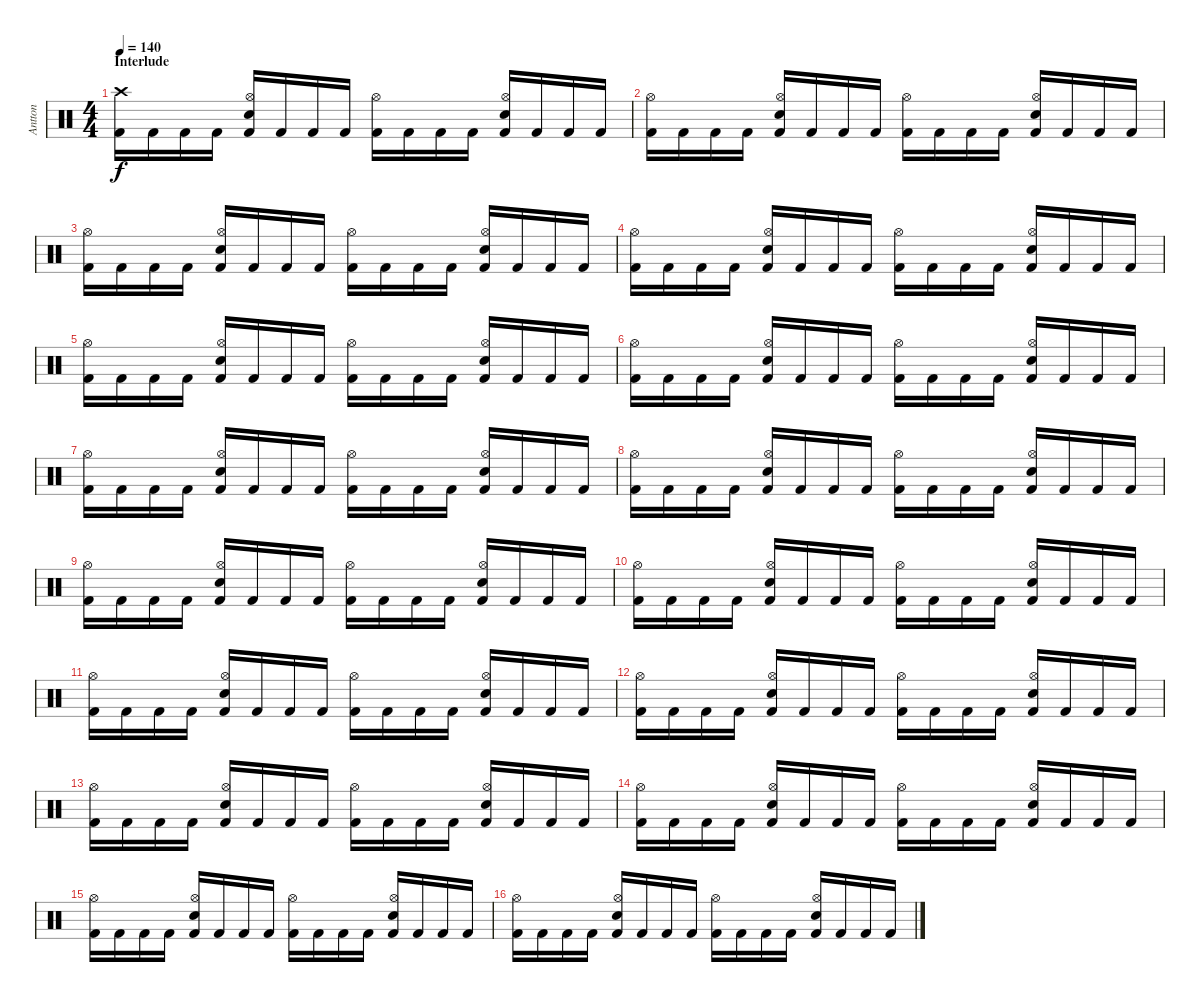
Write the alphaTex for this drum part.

\track ("Antton" "Antton") {instrument percussion}
\staff {score}
\articulation defaults
\ts (4 4)
\section ("" "Interlude")
\tempo 140
\clef neutral
\ks c
("Crash high (hit)" "Kick (hit) 2").16{dy f} "Kick (hit) 2".16 "Kick (hit) 2".16 "Kick (hit) 2".16 ("Hi-Hat (open)" "Snare (hit) 2" "Kick (hit) 2").16 "Kick (hit) 2".16 "Kick (hit) 2".16 "Kick (hit) 2".16 ("Hi-Hat (open)" "Kick (hit) 2").16 "Kick (hit) 2".16 "Kick (hit) 2".16 "Kick (hit) 2".16 ("Hi-Hat (open)" "Snare (hit) 2" "Kick (hit) 2").16 "Kick (hit) 2".16 "Kick (hit) 2".16 "Kick (hit) 2".16 |
("Hi-Hat (open)" "Kick (hit) 2").16 "Kick (hit) 2".16 "Kick (hit) 2".16 "Kick (hit) 2".16 ("Hi-Hat (open)" "Snare (hit) 2" "Kick (hit) 2").16 "Kick (hit) 2".16 "Kick (hit) 2".16 "Kick (hit) 2".16 ("Hi-Hat (open)" "Kick (hit) 2").16 "Kick (hit) 2".16 "Kick (hit) 2".16 "Kick (hit) 2".16 ("Hi-Hat (open)" "Snare (hit) 2" "Kick (hit) 2").16 "Kick (hit) 2".16 "Kick (hit) 2".16 "Kick (hit) 2".16 |
("Hi-Hat (open)" "Kick (hit) 2").16 "Kick (hit) 2".16 "Kick (hit) 2".16 "Kick (hit) 2".16 ("Hi-Hat (open)" "Snare (hit) 2" "Kick (hit) 2").16 "Kick (hit) 2".16 "Kick (hit) 2".16 "Kick (hit) 2".16 ("Hi-Hat (open)" "Kick (hit) 2").16 "Kick (hit) 2".16 "Kick (hit) 2".16 "Kick (hit) 2".16 ("Hi-Hat (open)" "Snare (hit) 2" "Kick (hit) 2").16 "Kick (hit) 2".16 "Kick (hit) 2".16 "Kick (hit) 2".16 |
("Hi-Hat (open)" "Kick (hit) 2").16 "Kick (hit) 2".16 "Kick (hit) 2".16 "Kick (hit) 2".16 ("Hi-Hat (open)" "Snare (hit) 2" "Kick (hit) 2").16 "Kick (hit) 2".16 "Kick (hit) 2".16 "Kick (hit) 2".16 ("Hi-Hat (open)" "Kick (hit) 2").16 "Kick (hit) 2".16 "Kick (hit) 2".16 "Kick (hit) 2".16 ("Hi-Hat (open)" "Snare (hit) 2" "Kick (hit) 2").16 "Kick (hit) 2".16 "Kick (hit) 2".16 "Kick (hit) 2".16 |
("Hi-Hat (open)" "Kick (hit) 2").16 "Kick (hit) 2".16 "Kick (hit) 2".16 "Kick (hit) 2".16 ("Hi-Hat (open)" "Snare (hit) 2" "Kick (hit) 2").16 "Kick (hit) 2".16 "Kick (hit) 2".16 "Kick (hit) 2".16 ("Hi-Hat (open)" "Kick (hit) 2").16 "Kick (hit) 2".16 "Kick (hit) 2".16 "Kick (hit) 2".16 ("Hi-Hat (open)" "Snare (hit) 2" "Kick (hit) 2").16 "Kick (hit) 2".16 "Kick (hit) 2".16 "Kick (hit) 2".16 |
("Hi-Hat (open)" "Kick (hit) 2").16 "Kick (hit) 2".16 "Kick (hit) 2".16 "Kick (hit) 2".16 ("Hi-Hat (open)" "Snare (hit) 2" "Kick (hit) 2").16 "Kick (hit) 2".16 "Kick (hit) 2".16 "Kick (hit) 2".16 ("Hi-Hat (open)" "Kick (hit) 2").16 "Kick (hit) 2".16 "Kick (hit) 2".16 "Kick (hit) 2".16 ("Hi-Hat (open)" "Snare (hit) 2" "Kick (hit) 2").16 "Kick (hit) 2".16 "Kick (hit) 2".16 "Kick (hit) 2".16 |
("Hi-Hat (open)" "Kick (hit) 2").16 "Kick (hit) 2".16 "Kick (hit) 2".16 "Kick (hit) 2".16 ("Hi-Hat (open)" "Snare (hit) 2" "Kick (hit) 2").16 "Kick (hit) 2".16 "Kick (hit) 2".16 "Kick (hit) 2".16 ("Hi-Hat (open)" "Kick (hit) 2").16 "Kick (hit) 2".16 "Kick (hit) 2".16 "Kick (hit) 2".16 ("Hi-Hat (open)" "Snare (hit) 2" "Kick (hit) 2").16 "Kick (hit) 2".16 "Kick (hit) 2".16 "Kick (hit) 2".16 |
("Hi-Hat (open)" "Kick (hit) 2").16 "Kick (hit) 2".16 "Kick (hit) 2".16 "Kick (hit) 2".16 ("Hi-Hat (open)" "Snare (hit) 2" "Kick (hit) 2").16 "Kick (hit) 2".16 "Kick (hit) 2".16 "Kick (hit) 2".16 ("Hi-Hat (open)" "Kick (hit) 2").16 "Kick (hit) 2".16 "Kick (hit) 2".16 "Kick (hit) 2".16 ("Hi-Hat (open)" "Snare (hit) 2" "Kick (hit) 2").16 "Kick (hit) 2".16 "Kick (hit) 2".16 "Kick (hit) 2".16 |
("Hi-Hat (open)" "Kick (hit) 2").16 "Kick (hit) 2".16 "Kick (hit) 2".16 "Kick (hit) 2".16 ("Hi-Hat (open)" "Snare (hit) 2" "Kick (hit) 2").16 "Kick (hit) 2".16 "Kick (hit) 2".16 "Kick (hit) 2".16 ("Hi-Hat (open)" "Kick (hit) 2").16 "Kick (hit) 2".16 "Kick (hit) 2".16 "Kick (hit) 2".16 ("Hi-Hat (open)" "Snare (hit) 2" "Kick (hit) 2").16 "Kick (hit) 2".16 "Kick (hit) 2".16 "Kick (hit) 2".16 |
("Hi-Hat (open)" "Kick (hit) 2").16 "Kick (hit) 2".16 "Kick (hit) 2".16 "Kick (hit) 2".16 ("Hi-Hat (open)" "Snare (hit) 2" "Kick (hit) 2").16 "Kick (hit) 2".16 "Kick (hit) 2".16 "Kick (hit) 2".16 ("Hi-Hat (open)" "Kick (hit) 2").16 "Kick (hit) 2".16 "Kick (hit) 2".16 "Kick (hit) 2".16 ("Hi-Hat (open)" "Snare (hit) 2" "Kick (hit) 2").16 "Kick (hit) 2".16 "Kick (hit) 2".16 "Kick (hit) 2".16 |
("Hi-Hat (open)" "Kick (hit) 2").16 "Kick (hit) 2".16 "Kick (hit) 2".16 "Kick (hit) 2".16 ("Hi-Hat (open)" "Snare (hit) 2" "Kick (hit) 2").16 "Kick (hit) 2".16 "Kick (hit) 2".16 "Kick (hit) 2".16 ("Hi-Hat (open)" "Kick (hit) 2").16 "Kick (hit) 2".16 "Kick (hit) 2".16 "Kick (hit) 2".16 ("Hi-Hat (open)" "Snare (hit) 2" "Kick (hit) 2").16 "Kick (hit) 2".16 "Kick (hit) 2".16 "Kick (hit) 2".16 |
("Hi-Hat (open)" "Kick (hit) 2").16 "Kick (hit) 2".16 "Kick (hit) 2".16 "Kick (hit) 2".16 ("Hi-Hat (open)" "Snare (hit) 2" "Kick (hit) 2").16 "Kick (hit) 2".16 "Kick (hit) 2".16 "Kick (hit) 2".16 ("Hi-Hat (open)" "Kick (hit) 2").16 "Kick (hit) 2".16 "Kick (hit) 2".16 "Kick (hit) 2".16 ("Hi-Hat (open)" "Snare (hit) 2" "Kick (hit) 2").16 "Kick (hit) 2".16 "Kick (hit) 2".16 "Kick (hit) 2".16 |
("Hi-Hat (open)" "Kick (hit) 2").16 "Kick (hit) 2".16 "Kick (hit) 2".16 "Kick (hit) 2".16 ("Hi-Hat (open)" "Snare (hit) 2" "Kick (hit) 2").16 "Kick (hit) 2".16 "Kick (hit) 2".16 "Kick (hit) 2".16 ("Hi-Hat (open)" "Kick (hit) 2").16 "Kick (hit) 2".16 "Kick (hit) 2".16 "Kick (hit) 2".16 ("Hi-Hat (open)" "Snare (hit) 2" "Kick (hit) 2").16 "Kick (hit) 2".16 "Kick (hit) 2".16 "Kick (hit) 2".16 |
("Hi-Hat (open)" "Kick (hit) 2").16 "Kick (hit) 2".16 "Kick (hit) 2".16 "Kick (hit) 2".16 ("Hi-Hat (open)" "Snare (hit) 2" "Kick (hit) 2").16 "Kick (hit) 2".16 "Kick (hit) 2".16 "Kick (hit) 2".16 ("Hi-Hat (open)" "Kick (hit) 2").16 "Kick (hit) 2".16 "Kick (hit) 2".16 "Kick (hit) 2".16 ("Hi-Hat (open)" "Snare (hit) 2" "Kick (hit) 2").16 "Kick (hit) 2".16 "Kick (hit) 2".16 "Kick (hit) 2".16 |
("Hi-Hat (open)" "Kick (hit) 2").16 "Kick (hit) 2".16 "Kick (hit) 2".16 "Kick (hit) 2".16 ("Hi-Hat (open)" "Snare (hit) 2" "Kick (hit) 2").16 "Kick (hit) 2".16 "Kick (hit) 2".16 "Kick (hit) 2".16 ("Hi-Hat (open)" "Kick (hit) 2").16 "Kick (hit) 2".16 "Kick (hit) 2".16 "Kick (hit) 2".16 ("Hi-Hat (open)" "Snare (hit) 2" "Kick (hit) 2").16 "Kick (hit) 2".16 "Kick (hit) 2".16 "Kick (hit) 2".16 |
("Hi-Hat (open)" "Kick (hit) 2").16 "Kick (hit) 2".16 "Kick (hit) 2".16 "Kick (hit) 2".16 ("Hi-Hat (open)" "Snare (hit) 2" "Kick (hit) 2").16 "Kick (hit) 2".16 "Kick (hit) 2".16 "Kick (hit) 2".16 ("Hi-Hat (open)" "Kick (hit) 2").16 "Kick (hit) 2".16 "Kick (hit) 2".16 "Kick (hit) 2".16 ("Hi-Hat (open)" "Snare (hit) 2" "Kick (hit) 2").16 "Kick (hit) 2".16 "Kick (hit) 2".16 "Kick (hit) 2".16
